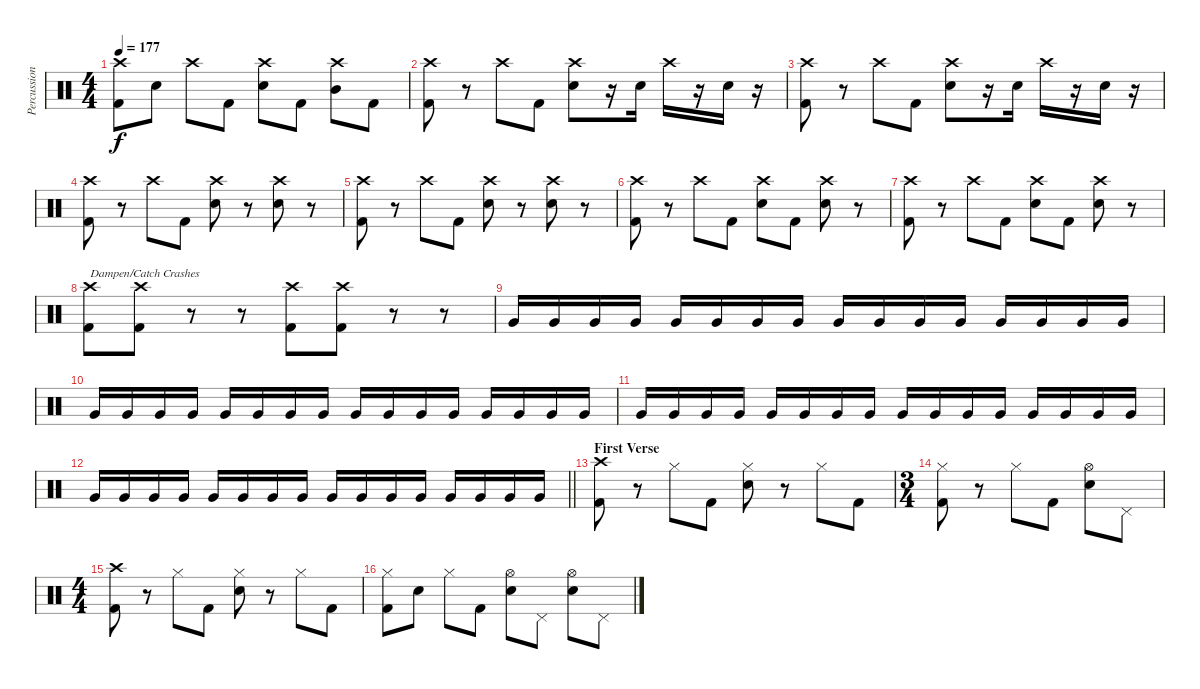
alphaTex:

\track ("Percussion" "Percussion") {instrument percussion}
\staff {score}
\articulation defaults
\ts (4 4)
\tempo 177
\clef neutral
\ks c
("Crash high (hit)" "Kick (hit) 2").8{dy f} "Electric Snare (hit)".8 "Crash high (hit)".8 "Kick (hit) 2".8 ("Crash high (hit)" "Electric Snare (hit)").8 "Kick (hit) 2".8 ("Crash high (hit)" "Mid Tom (hit)").8 "Kick (hit) 2".8 |
("Crash high (hit)" "Kick (hit) 2").8 r.8 "Crash high (hit)".8 "Kick (hit) 2".8 ("Crash high (hit)" "Electric Snare (hit)").8 r.16 "Electric Snare (hit)".16 "Crash high (hit)".16 r.16 "Electric Snare (hit)".16 r.16 |
("Crash high (hit)" "Kick (hit) 2").8 r.8 "Crash high (hit)".8 "Kick (hit) 2".8 ("Crash high (hit)" "Electric Snare (hit)").8 r.16 "Electric Snare (hit)".16 "Crash high (hit)".16 r.16 "Electric Snare (hit)".16 r.16 |
("Crash high (hit)" "Kick (hit) 2").8 r.8 "Crash high (hit)".8 "Kick (hit) 2".8 ("Crash high (hit)" "Electric Snare (hit)").8 r.8 ("Crash high (hit)" "Electric Snare (hit)").8 r.8 |
("Crash high (hit)" "Kick (hit) 2").8 r.8 "Crash high (hit)".8 "Kick (hit) 2".8 ("Crash high (hit)" "Electric Snare (hit)").8 r.8 ("Crash high (hit)" "Electric Snare (hit)").8 r.8 |
("Crash high (hit)" "Kick (hit) 2").8 r.8 "Crash high (hit)".8 "Kick (hit) 2".8 ("Crash high (hit)" "Electric Snare (hit)").8 "Kick (hit) 2".8 ("Crash high (hit)" "Electric Snare (hit)").8 r.8 |
("Crash high (hit)" "Kick (hit) 2").8 r.8 "Crash high (hit)".8 "Kick (hit) 2".8 ("Crash high (hit)" "Electric Snare (hit)").8 "Kick (hit) 2".8 ("Crash high (hit)" "Electric Snare (hit)").8 r.8 |
("Crash high (hit)" "Kick (hit) 2").8{txt "Dampen/Catch Crashes"} ("Crash high (hit)" "Kick (hit) 2").8 r.8 r.8 ("Crash high (hit)" "Kick (hit) 2").8 ("Crash high (hit)" "Kick (hit) 2").8 r.8 r.8 |
"Very Low Tom (hit)".16{volume 5} "Very Low Tom (hit)".16 "Very Low Tom (hit)".16 "Very Low Tom (hit)".16 "Very Low Tom (hit)".16 "Very Low Tom (hit)".16 "Very Low Tom (hit)".16 "Very Low Tom (hit)".16 "Very Low Tom (hit)".16 "Very Low Tom (hit)".16 "Very Low Tom (hit)".16 "Very Low Tom (hit)".16 "Very Low Tom (hit)".16 "Very Low Tom (hit)".16 "Very Low Tom (hit)".16 "Very Low Tom (hit)".16 |
"Very Low Tom (hit)".16{volume 13} "Very Low Tom (hit)".16 "Very Low Tom (hit)".16 "Very Low Tom (hit)".16 "Very Low Tom (hit)".16 "Very Low Tom (hit)".16 "Very Low Tom (hit)".16 "Very Low Tom (hit)".16 "Very Low Tom (hit)".16 "Very Low Tom (hit)".16 "Very Low Tom (hit)".16 "Very Low Tom (hit)".16 "Very Low Tom (hit)".16 "Very Low Tom (hit)".16 "Very Low Tom (hit)".16 "Very Low Tom (hit)".16 |
"Very Low Tom (hit)".16 "Very Low Tom (hit)".16 "Very Low Tom (hit)".16 "Very Low Tom (hit)".16 "Very Low Tom (hit)".16 "Very Low Tom (hit)".16 "Very Low Tom (hit)".16 "Very Low Tom (hit)".16 "Very Low Tom (hit)".16 "Very Low Tom (hit)".16 "Very Low Tom (hit)".16 "Very Low Tom (hit)".16 "Very Low Tom (hit)".16 "Very Low Tom (hit)".16 "Very Low Tom (hit)".16 "Very Low Tom (hit)".16 |
\barLineRight lightlight "Very Low Tom (hit)".16 "Very Low Tom (hit)".16 "Very Low Tom (hit)".16 "Very Low Tom (hit)".16 "Very Low Tom (hit)".16 "Very Low Tom (hit)".16 "Very Low Tom (hit)".16 "Very Low Tom (hit)".16 "Very Low Tom (hit)".16 "Very Low Tom (hit)".16 "Very Low Tom (hit)".16 "Very Low Tom (hit)".16 "Very Low Tom (hit)".16 "Very Low Tom (hit)".16 "Very Low Tom (hit)".16 "Very Low Tom (hit)".16
|
\section ("" "First Verse")
("Crash high (hit)" "Kick (hit) 2").8 r.8 "Hi-Hat (closed)".8 "Kick (hit) 2".8 ("Hi-Hat (closed)" "Electric Snare (hit)").8 r.8 "Hi-Hat (closed)".8 "Kick (hit) 2".8 |
\ts (3 4)
("Hi-Hat (closed)" "Kick (hit) 2").8 r.8 "Hi-Hat (closed)".8 "Kick (hit) 2".8 ("Hi-Hat (open)" "Electric Snare (hit)").8 "Pedal Hi-Hat (hit)".8 |
\ts (4 4)
("Crash high (hit)" "Kick (hit) 2").8 r.8 "Hi-Hat (closed)".8 "Kick (hit) 2".8 ("Hi-Hat (closed)" "Electric Snare (hit)").8 r.8 "Hi-Hat (closed)".8 "Kick (hit) 2".8 |
("Hi-Hat (closed)" "Kick (hit) 2").8 "Electric Snare (hit)".8 "Hi-Hat (closed)".8 "Kick (hit) 2".8 ("Hi-Hat (open)" "Electric Snare (hit)").8 "Pedal Hi-Hat (hit)".8 ("Hi-Hat (open)" "Electric Snare (hit)").8 "Pedal Hi-Hat (hit)".8
